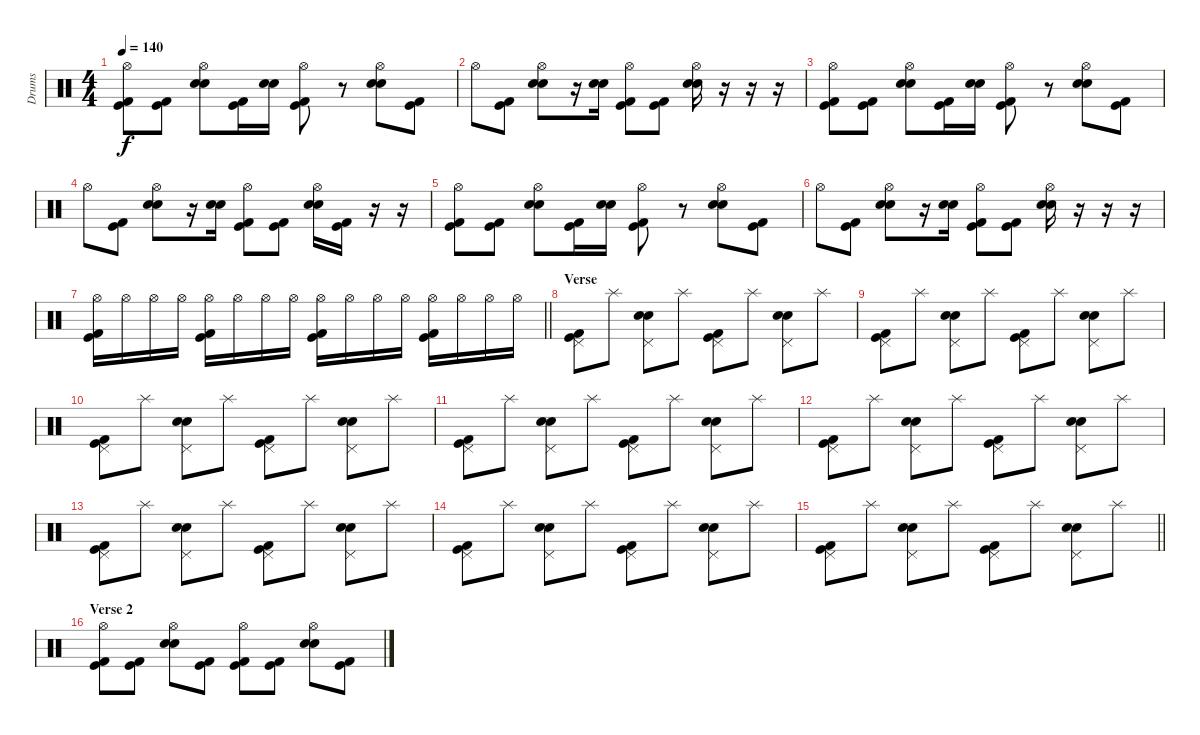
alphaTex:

\track ("Drums" "Drums") {instrument percussion}
\staff {score}
\articulation defaults
\ts (4 4)
\tempo 140
\clef neutral
\ks c
("Hi-Hat (open)" "Kick (hit) 2" "Kick (hit)").8{dy f} ("Kick (hit) 2" "Kick (hit)").8 ("Hi-Hat (open)" "Electric Snare (hit)" "Electric Snare (hit)").8 ("Kick (hit) 2" "Kick (hit)").16 ("Electric Snare (hit)" "Electric Snare (hit)").16 ("Hi-Hat (open)" "Kick (hit) 2" "Kick (hit)").8 r.8 ("Hi-Hat (open)" "Electric Snare (hit)" "Electric Snare (hit)").8 ("Kick (hit)" "Kick (hit) 2").8 |
"Hi-Hat (open)".8 ("Kick (hit) 2" "Kick (hit)").8 ("Hi-Hat (open)" "Electric Snare (hit)" "Electric Snare (hit)").8 r.16 ("Electric Snare (hit)" "Electric Snare (hit)").16 ("Hi-Hat (open)" "Kick (hit) 2" "Kick (hit)").8 ("Kick (hit) 2" "Kick (hit)").8 ("Hi-Hat (open)" "Electric Snare (hit)" "Electric Snare (hit)").16 r.16 r.16 r.16 |
("Hi-Hat (open)" "Kick (hit) 2" "Kick (hit)").8 ("Kick (hit) 2" "Kick (hit)").8 ("Hi-Hat (open)" "Electric Snare (hit)" "Electric Snare (hit)").8 ("Kick (hit) 2" "Kick (hit)").16 ("Electric Snare (hit)" "Electric Snare (hit)").16 ("Hi-Hat (open)" "Kick (hit) 2" "Kick (hit)").8 r.8 ("Hi-Hat (open)" "Electric Snare (hit)" "Electric Snare (hit)").8 ("Kick (hit)" "Kick (hit) 2").8 |
"Hi-Hat (open)".8 ("Kick (hit) 2" "Kick (hit)").8 ("Hi-Hat (open)" "Electric Snare (hit)" "Electric Snare (hit)").8 r.16 ("Electric Snare (hit)" "Electric Snare (hit)").16 ("Hi-Hat (open)" "Kick (hit) 2" "Kick (hit)").8 ("Kick (hit) 2" "Kick (hit)").8 ("Hi-Hat (open)" "Electric Snare (hit)" "Electric Snare (hit)").16 ("Kick (hit) 2" "Kick (hit)").16 r.16 r.16 |
("Hi-Hat (open)" "Kick (hit) 2" "Kick (hit)").8 ("Kick (hit) 2" "Kick (hit)").8 ("Hi-Hat (open)" "Electric Snare (hit)" "Electric Snare (hit)").8 ("Kick (hit) 2" "Kick (hit)").16 ("Electric Snare (hit)" "Electric Snare (hit)").16 ("Hi-Hat (open)" "Kick (hit) 2" "Kick (hit)").8 r.8 ("Hi-Hat (open)" "Electric Snare (hit)" "Electric Snare (hit)").8 ("Kick (hit)" "Kick (hit) 2").8 |
"Hi-Hat (open)".8 ("Kick (hit) 2" "Kick (hit)").8 ("Hi-Hat (open)" "Electric Snare (hit)" "Electric Snare (hit)").8 r.16 ("Electric Snare (hit)" "Electric Snare (hit)").16 ("Hi-Hat (open)" "Kick (hit) 2" "Kick (hit)").8 ("Kick (hit) 2" "Kick (hit)").8 ("Hi-Hat (open)" "Electric Snare (hit)" "Electric Snare (hit)").16 r.16 r.16 r.16 |
\barLineRight lightlight
("Hi-Hat (open)" "Kick (hit) 2" "Kick (hit)").16 "Hi-Hat (open)".16 "Hi-Hat (open)".16 "Hi-Hat (open)".16 ("Hi-Hat (open)" "Kick (hit) 2" "Kick (hit)").16 "Hi-Hat (open)".16 "Hi-Hat (open)".16 "Hi-Hat (open)".16 ("Hi-Hat (open)" "Kick (hit) 2" "Kick (hit)").16 "Hi-Hat (open)".16 "Hi-Hat (open)".16 "Hi-Hat (open)".16 ("Hi-Hat (open)" "Kick (hit) 2" "Kick (hit)").16 "Hi-Hat (open)".16 "Hi-Hat (open)".16 "Hi-Hat (open)".16 |
\section ("" "Verse")
("Pedal Hi-Hat (hit)" "Kick (hit) 2" "Kick (hit)").8 "Splash (hit)".8 ("Pedal Hi-Hat (hit)" "Electric Snare (hit)" "Electric Snare (hit)").8 "Splash (hit)".8 ("Pedal Hi-Hat (hit)" "Kick (hit) 2" "Kick (hit)").8 "Splash (hit)".8 ("Pedal Hi-Hat (hit)" "Electric Snare (hit)" "Electric Snare (hit)").8 "Splash (hit)".8 |
("Pedal Hi-Hat (hit)" "Kick (hit) 2" "Kick (hit)").8 "Splash (hit)".8 ("Pedal Hi-Hat (hit)" "Electric Snare (hit)" "Electric Snare (hit)").8 "Splash (hit)".8 ("Pedal Hi-Hat (hit)" "Kick (hit) 2" "Kick (hit)").8 "Splash (hit)".8 ("Pedal Hi-Hat (hit)" "Electric Snare (hit)" "Electric Snare (hit)").8 "Splash (hit)".8 |
("Pedal Hi-Hat (hit)" "Kick (hit) 2" "Kick (hit)").8 "Splash (hit)".8 ("Pedal Hi-Hat (hit)" "Electric Snare (hit)" "Electric Snare (hit)").8 "Splash (hit)".8 ("Pedal Hi-Hat (hit)" "Kick (hit) 2" "Kick (hit)").8 "Splash (hit)".8 ("Pedal Hi-Hat (hit)" "Electric Snare (hit)" "Electric Snare (hit)").8 "Splash (hit)".8 |
("Pedal Hi-Hat (hit)" "Kick (hit) 2" "Kick (hit)").8 "Splash (hit)".8 ("Pedal Hi-Hat (hit)" "Electric Snare (hit)" "Electric Snare (hit)").8 "Splash (hit)".8 ("Pedal Hi-Hat (hit)" "Kick (hit) 2" "Kick (hit)").8 "Splash (hit)".8 ("Pedal Hi-Hat (hit)" "Electric Snare (hit)" "Electric Snare (hit)").8 "Splash (hit)".8 |
("Pedal Hi-Hat (hit)" "Kick (hit) 2" "Kick (hit)").8 "Splash (hit)".8 ("Pedal Hi-Hat (hit)" "Electric Snare (hit)" "Electric Snare (hit)").8 "Splash (hit)".8 ("Pedal Hi-Hat (hit)" "Kick (hit) 2" "Kick (hit)").8 "Splash (hit)".8 ("Pedal Hi-Hat (hit)" "Electric Snare (hit)" "Electric Snare (hit)").8 "Splash (hit)".8 |
("Pedal Hi-Hat (hit)" "Kick (hit) 2" "Kick (hit)").8 "Splash (hit)".8 ("Pedal Hi-Hat (hit)" "Electric Snare (hit)" "Electric Snare (hit)").8 "Splash (hit)".8 ("Pedal Hi-Hat (hit)" "Kick (hit) 2" "Kick (hit)").8 "Splash (hit)".8 ("Pedal Hi-Hat (hit)" "Electric Snare (hit)" "Electric Snare (hit)").8 "Splash (hit)".8 |
("Pedal Hi-Hat (hit)" "Kick (hit) 2" "Kick (hit)").8 "Splash (hit)".8 ("Pedal Hi-Hat (hit)" "Electric Snare (hit)" "Electric Snare (hit)").8 "Splash (hit)".8 ("Pedal Hi-Hat (hit)" "Kick (hit) 2" "Kick (hit)").8 "Splash (hit)".8 ("Pedal Hi-Hat (hit)" "Electric Snare (hit)" "Electric Snare (hit)").8 "Splash (hit)".8 |
\barLineRight lightlight
("Pedal Hi-Hat (hit)" "Kick (hit) 2" "Kick (hit)").8 "Splash (hit)".8 ("Pedal Hi-Hat (hit)" "Electric Snare (hit)" "Electric Snare (hit)").8 "Splash (hit)".8 ("Pedal Hi-Hat (hit)" "Kick (hit) 2" "Kick (hit)").8 "Splash (hit)".8 ("Pedal Hi-Hat (hit)" "Electric Snare (hit)" "Electric Snare (hit)").8 "Splash (hit)".8 |
\section ("" "Verse 2")
("Hi-Hat (open)" "Kick (hit) 2" "Kick (hit)").8 ("Kick (hit) 2" "Kick (hit)").8 ("Hi-Hat (open)" "Electric Snare (hit)" "Electric Snare (hit)").8 ("Kick (hit)" "Kick (hit) 2").8 ("Hi-Hat (open)" "Kick (hit) 2" "Kick (hit)").8 ("Kick (hit) 2" "Kick (hit)").8 ("Hi-Hat (open)" "Electric Snare (hit)" "Electric Snare (hit)").8 ("Kick (hit)" "Kick (hit) 2").8
